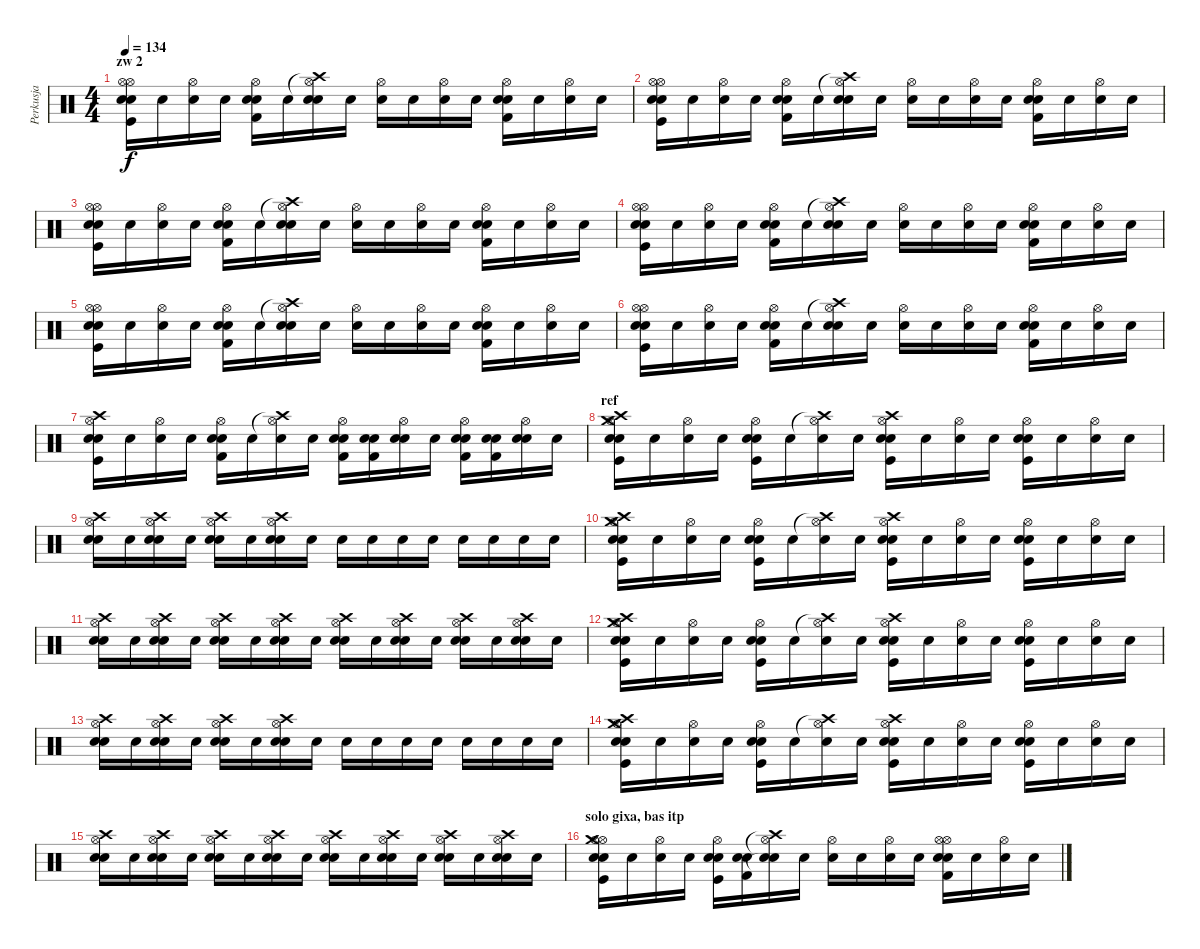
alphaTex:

\track ("Perkusja" "Perkusja") {instrument percussion}
\staff {score}
\articulation defaults
\ts (4 4)
\section ("" "zw 2")
\tempo 134
\clef neutral
\ks c
("Hi-Hat (open)" "Electric Snare (hit)" "Kick (hit)" "Hi-Hat (open)" "Snare (hit)").16{dy f} "Snare (hit)".16 ("Hi-Hat (open)" "Snare (hit)").16 "Snare (hit)".16 ("Electric Snare (hit)" "Kick (hit) 2" "Hi-Hat (open)" "Snare (hit)").16 "Snare (hit)".16 ("Crash high (hit)"{t} "Electric Snare (hit)" "Hi-Hat (open)" "Snare (hit)").16 "Snare (hit)".16 ("Hi-Hat (open)" "Snare (hit)").16 "Snare (hit)".16 ("Hi-Hat (open)" "Snare (hit)").16 "Snare (hit)".16 ("Electric Snare (hit)" "Kick (hit) 2" "Hi-Hat (open)" "Snare (hit)").16 "Snare (hit)".16 ("Hi-Hat (open)" "Snare (hit)").16 "Snare (hit)".16 |
("Hi-Hat (open)" "Electric Snare (hit)" "Kick (hit)" "Hi-Hat (open)" "Snare (hit)").16 "Snare (hit)".16 ("Hi-Hat (open)" "Snare (hit)").16 "Snare (hit)".16 ("Electric Snare (hit)" "Kick (hit) 2" "Hi-Hat (open)" "Snare (hit)").16 "Snare (hit)".16 ("Crash high (hit)"{t} "Electric Snare (hit)" "Hi-Hat (open)" "Snare (hit)").16 "Snare (hit)".16 ("Hi-Hat (open)" "Snare (hit)").16 "Snare (hit)".16 ("Hi-Hat (open)" "Snare (hit)").16 "Snare (hit)".16 ("Electric Snare (hit)" "Kick (hit) 2" "Hi-Hat (open)" "Snare (hit)").16 "Snare (hit)".16 ("Hi-Hat (open)" "Snare (hit)").16 "Snare (hit)".16 |
("Hi-Hat (open)" "Electric Snare (hit)" "Kick (hit)" "Hi-Hat (open)" "Snare (hit)").16 "Snare (hit)".16 ("Hi-Hat (open)" "Snare (hit)").16 "Snare (hit)".16 ("Electric Snare (hit)" "Kick (hit) 2" "Hi-Hat (open)" "Snare (hit)").16 "Snare (hit)".16 ("Crash high (hit)"{t} "Electric Snare (hit)" "Hi-Hat (open)" "Snare (hit)").16 "Snare (hit)".16 ("Hi-Hat (open)" "Snare (hit)").16 "Snare (hit)".16 ("Hi-Hat (open)" "Snare (hit)").16 "Snare (hit)".16 ("Electric Snare (hit)" "Kick (hit) 2" "Hi-Hat (open)" "Snare (hit)").16 "Snare (hit)".16 ("Hi-Hat (open)" "Snare (hit)").16 "Snare (hit)".16 |
("Hi-Hat (open)" "Electric Snare (hit)" "Kick (hit)" "Hi-Hat (open)" "Snare (hit)").16 "Snare (hit)".16 ("Hi-Hat (open)" "Snare (hit)").16 "Snare (hit)".16 ("Electric Snare (hit)" "Kick (hit) 2" "Hi-Hat (open)" "Snare (hit)").16 "Snare (hit)".16 ("Crash high (hit)"{t} "Electric Snare (hit)" "Hi-Hat (open)" "Snare (hit)").16 "Snare (hit)".16 ("Hi-Hat (open)" "Snare (hit)").16 "Snare (hit)".16 ("Hi-Hat (open)" "Snare (hit)").16 "Snare (hit)".16 ("Electric Snare (hit)" "Kick (hit) 2" "Hi-Hat (open)" "Snare (hit)").16 "Snare (hit)".16 ("Hi-Hat (open)" "Snare (hit)").16 "Snare (hit)".16 |
("Hi-Hat (open)" "Electric Snare (hit)" "Kick (hit)" "Hi-Hat (open)" "Snare (hit)").16 "Snare (hit)".16 ("Hi-Hat (open)" "Snare (hit)").16 "Snare (hit)".16 ("Electric Snare (hit)" "Kick (hit) 2" "Hi-Hat (open)" "Snare (hit)").16 "Snare (hit)".16 ("Crash high (hit)"{t} "Electric Snare (hit)" "Hi-Hat (open)" "Snare (hit)").16 "Snare (hit)".16 ("Hi-Hat (open)" "Snare (hit)").16 "Snare (hit)".16 ("Hi-Hat (open)" "Snare (hit)").16 "Snare (hit)".16 ("Electric Snare (hit)" "Kick (hit) 2" "Hi-Hat (open)" "Snare (hit)").16 "Snare (hit)".16 ("Hi-Hat (open)" "Snare (hit)").16 "Snare (hit)".16 |
("Hi-Hat (open)" "Electric Snare (hit)" "Kick (hit)" "Hi-Hat (open)" "Snare (hit)").16 "Snare (hit)".16 ("Hi-Hat (open)" "Snare (hit)").16 "Snare (hit)".16 ("Electric Snare (hit)" "Kick (hit) 2" "Hi-Hat (open)" "Snare (hit)").16 "Snare (hit)".16 ("Crash high (hit)"{t} "Electric Snare (hit)" "Hi-Hat (open)" "Snare (hit)").16 "Snare (hit)".16 ("Hi-Hat (open)" "Snare (hit)").16 "Snare (hit)".16 ("Hi-Hat (open)" "Snare (hit)").16 "Snare (hit)".16 ("Electric Snare (hit)" "Kick (hit) 2" "Hi-Hat (open)" "Snare (hit)").16 "Snare (hit)".16 ("Hi-Hat (open)" "Snare (hit)").16 "Snare (hit)".16 |
("Crash high (hit)" "Electric Snare (hit)" "Kick (hit)" "Hi-Hat (open)" "Snare (hit)").16 "Snare (hit)".16 ("Hi-Hat (open)" "Snare (hit)").16 "Snare (hit)".16 ("Electric Snare (hit)" "Kick (hit) 2" "Hi-Hat (open)" "Snare (hit)").16 "Snare (hit)".16 ("Crash high (hit)"{t} "Hi-Hat (open)" "Snare (hit)").16 "Snare (hit)".16 ("Electric Snare (hit)" "Kick (hit) 2" "Hi-Hat (open)" "Snare (hit)").16 ("Electric Snare (hit)" "Kick (hit) 2" "Snare (hit)").16 ("Electric Snare (hit)" "Hi-Hat (open)" "Snare (hit)").16 "Snare (hit)".16 ("Electric Snare (hit)" "Kick (hit) 2" "Hi-Hat (open)" "Snare (hit)").16 ("Electric Snare (hit)" "Kick (hit) 2" "Snare (hit)").16 ("Electric Snare (hit)" "Hi-Hat (open)" "Snare (hit)").16 "Snare (hit)".16 |
\section ("" "ref")
("Crash high (hit)" "Crash medium (hit)" "Electric Snare (hit)" "Kick (hit)" "Hi-Hat (open)" "Snare (hit)").16 "Snare (hit)".16 ("Hi-Hat (open)" "Snare (hit)").16 "Snare (hit)".16 ("Electric Snare (hit)" "Kick (hit)" "Hi-Hat (open)" "Snare (hit)").16 "Snare (hit)".16 ("Crash high (hit)"{t} "Hi-Hat (open)" "Snare (hit)").16 "Snare (hit)".16 ("Crash high (hit)" "Electric Snare (hit)" "Kick (hit)" "Hi-Hat (open)" "Snare (hit)").16 "Snare (hit)".16 ("Hi-Hat (open)" "Snare (hit)").16 "Snare (hit)".16 ("Electric Snare (hit)" "Kick (hit)" "Hi-Hat (open)" "Snare (hit)").16 "Snare (hit)".16 ("Hi-Hat (open)" "Snare (hit)").16 "Snare (hit)".16 |
("Crash high (hit)" "Electric Snare (hit)" "Hi-Hat (open)" "Snare (hit)").16 "Snare (hit)".16 ("Crash high (hit)" "Electric Snare (hit)" "Hi-Hat (open)" "Snare (hit)").16 "Snare (hit)".16 ("Crash high (hit)" "Electric Snare (hit)" "Hi-Hat (open)" "Snare (hit)").16 "Snare (hit)".16 ("Crash high (hit)" "Electric Snare (hit)" "Hi-Hat (open)" "Snare (hit)").16 "Snare (hit)".16 "Snare (hit)".16 "Snare (hit)".16 "Snare (hit)".16 "Snare (hit)".16 "Snare (hit)".16 "Snare (hit)".16 "Snare (hit)".16 "Snare (hit)".16 |
("Crash high (hit)" "Crash medium (hit)" "Electric Snare (hit)" "Kick (hit)" "Hi-Hat (open)" "Snare (hit)").16 "Snare (hit)".16 ("Hi-Hat (open)" "Snare (hit)").16 "Snare (hit)".16 ("Electric Snare (hit)" "Kick (hit)" "Hi-Hat (open)" "Snare (hit)").16 "Snare (hit)".16 ("Crash high (hit)"{t} "Hi-Hat (open)" "Snare (hit)").16 "Snare (hit)".16 ("Crash high (hit)" "Electric Snare (hit)" "Kick (hit)" "Hi-Hat (open)" "Snare (hit)").16 "Snare (hit)".16 ("Hi-Hat (open)" "Snare (hit)").16 "Snare (hit)".16 ("Electric Snare (hit)" "Kick (hit)" "Hi-Hat (open)" "Snare (hit)").16 "Snare (hit)".16 ("Hi-Hat (open)" "Snare (hit)").16 "Snare (hit)".16 |
("Crash high (hit)" "Electric Snare (hit)" "Hi-Hat (open)" "Snare (hit)").16 "Snare (hit)".16 ("Crash high (hit)" "Electric Snare (hit)" "Hi-Hat (open)" "Snare (hit)").16 "Snare (hit)".16 ("Crash high (hit)" "Electric Snare (hit)" "Hi-Hat (open)" "Snare (hit)").16 "Snare (hit)".16 ("Crash high (hit)" "Electric Snare (hit)" "Hi-Hat (open)" "Snare (hit)").16 "Snare (hit)".16 ("Crash high (hit)" "Electric Snare (hit)" "Hi-Hat (open)" "Snare (hit)").16 "Snare (hit)".16 ("Crash high (hit)" "Electric Snare (hit)" "Hi-Hat (open)" "Snare (hit)").16 "Snare (hit)".16 ("Crash high (hit)" "Electric Snare (hit)" "Hi-Hat (open)" "Snare (hit)").16 "Snare (hit)".16 ("Crash high (hit)" "Electric Snare (hit)" "Hi-Hat (open)" "Snare (hit)").16 "Snare (hit)".16 |
("Crash high (hit)" "Crash medium (hit)" "Electric Snare (hit)" "Kick (hit)" "Hi-Hat (open)" "Snare (hit)").16 "Snare (hit)".16 ("Hi-Hat (open)" "Snare (hit)").16 "Snare (hit)".16 ("Electric Snare (hit)" "Kick (hit)" "Hi-Hat (open)" "Snare (hit)").16 "Snare (hit)".16 ("Crash high (hit)"{t} "Hi-Hat (open)" "Snare (hit)").16 "Snare (hit)".16 ("Crash high (hit)" "Electric Snare (hit)" "Kick (hit)" "Hi-Hat (open)" "Snare (hit)").16 "Snare (hit)".16 ("Hi-Hat (open)" "Snare (hit)").16 "Snare (hit)".16 ("Electric Snare (hit)" "Kick (hit)" "Hi-Hat (open)" "Snare (hit)").16 "Snare (hit)".16 ("Hi-Hat (open)" "Snare (hit)").16 "Snare (hit)".16 |
("Crash high (hit)" "Electric Snare (hit)" "Hi-Hat (open)" "Snare (hit)").16 "Snare (hit)".16 ("Crash high (hit)" "Electric Snare (hit)" "Hi-Hat (open)" "Snare (hit)").16 "Snare (hit)".16 ("Crash high (hit)" "Electric Snare (hit)" "Hi-Hat (open)" "Snare (hit)").16 "Snare (hit)".16 ("Crash high (hit)" "Electric Snare (hit)" "Hi-Hat (open)" "Snare (hit)").16 "Snare (hit)".16 "Snare (hit)".16 "Snare (hit)".16 "Snare (hit)".16 "Snare (hit)".16 "Snare (hit)".16 "Snare (hit)".16 "Snare (hit)".16 "Snare (hit)".16 |
("Crash high (hit)" "Crash medium (hit)" "Electric Snare (hit)" "Kick (hit)" "Hi-Hat (open)" "Snare (hit)").16 "Snare (hit)".16 ("Hi-Hat (open)" "Snare (hit)").16 "Snare (hit)".16 ("Electric Snare (hit)" "Kick (hit)" "Hi-Hat (open)" "Snare (hit)").16 "Snare (hit)".16 ("Crash high (hit)"{t} "Hi-Hat (open)" "Snare (hit)").16 "Snare (hit)".16 ("Crash high (hit)" "Electric Snare (hit)" "Kick (hit)" "Hi-Hat (open)" "Snare (hit)").16 "Snare (hit)".16 ("Hi-Hat (open)" "Snare (hit)").16 "Snare (hit)".16 ("Electric Snare (hit)" "Kick (hit)" "Hi-Hat (open)" "Snare (hit)").16 "Snare (hit)".16 ("Hi-Hat (open)" "Snare (hit)").16 "Snare (hit)".16 |
("Crash high (hit)" "Electric Snare (hit)" "Hi-Hat (open)" "Snare (hit)").16 "Snare (hit)".16 ("Crash high (hit)" "Electric Snare (hit)" "Hi-Hat (open)" "Snare (hit)").16 "Snare (hit)".16 ("Crash high (hit)" "Electric Snare (hit)" "Hi-Hat (open)" "Snare (hit)").16 "Snare (hit)".16 ("Crash high (hit)" "Electric Snare (hit)" "Hi-Hat (open)" "Snare (hit)").16 "Snare (hit)".16 ("Crash high (hit)" "Electric Snare (hit)" "Hi-Hat (open)" "Snare (hit)").16 "Snare (hit)".16 ("Crash high (hit)" "Electric Snare (hit)" "Hi-Hat (open)" "Snare (hit)").16 "Snare (hit)".16 ("Crash high (hit)" "Electric Snare (hit)" "Hi-Hat (open)" "Snare (hit)").16 "Snare (hit)".16 ("Crash high (hit)" "Electric Snare (hit)" "Hi-Hat (open)" "Snare (hit)").16 "Snare (hit)".16 |
\section ("" "solo gixa, bas itp")
("Hi-Hat (open)" "Crash medium (hit)" "Electric Snare (hit)" "Kick (hit)" "Hi-Hat (open)" "Snare (hit)").16 "Snare (hit)".16 ("Hi-Hat (open)" "Snare (hit)").16 "Snare (hit)".16 ("Electric Snare (hit)" "Kick (hit)" "Hi-Hat (open)" "Snare (hit)").16 ("Electric Snare (hit)" "Kick (hit) 2" "Snare (hit)").16 ("Crash high (hit)"{t} "Snare (hit)"{t} "Hi-Hat (open)" "Snare (hit)").16 "Snare (hit)".16 ("Hi-Hat (open)" "Snare (hit)").16 "Snare (hit)".16 ("Hi-Hat (open)" "Snare (hit)").16 "Snare (hit)".16 ("Hi-Hat (open)" "Electric Snare (hit)" "Kick (hit) 2" "Hi-Hat (open)" "Snare (hit)").16 "Snare (hit)".16 ("Hi-Hat (open)" "Snare (hit)").16 "Snare (hit)".16
